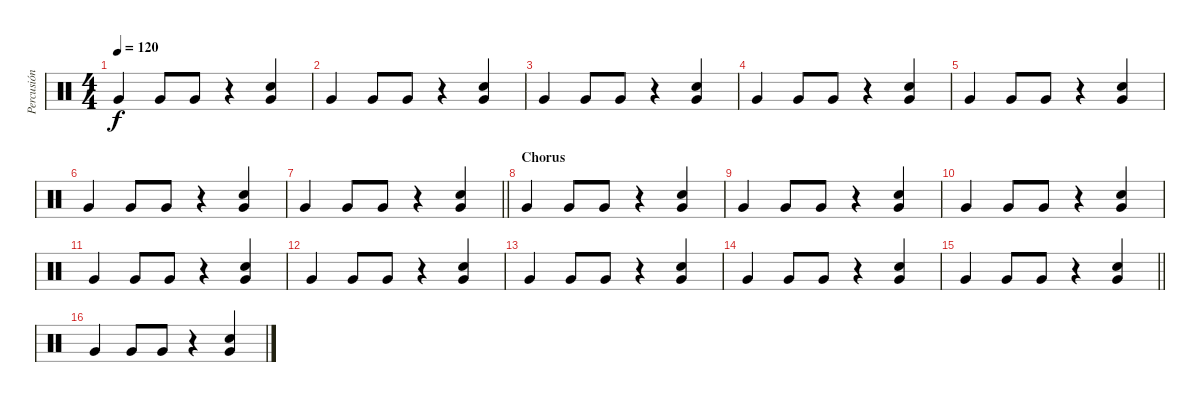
\track ("Percusión" "Percusión") {instrument percussion}
\staff {score}
\articulation defaults
\ts (4 4)
\tempo 120
\clef neutral
\ks c "Very Low Tom (hit)".4{dy f} "Very Low Tom (hit)".8 "Very Low Tom (hit)".8
r.4 ("Very Low Tom (hit)" "Electric Snare (hit)").4 |
"Very Low Tom (hit)".4 "Very Low Tom (hit)".8 "Very Low Tom (hit)".8 r.4 ("Very Low Tom (hit)" "Electric Snare (hit)").4 |
"Very Low Tom (hit)".4 "Very Low Tom (hit)".8 "Very Low Tom (hit)".8 r.4 ("Very Low Tom (hit)" "Electric Snare (hit)").4 |
"Very Low Tom (hit)".4 "Very Low Tom (hit)".8 "Very Low Tom (hit)".8 r.4 ("Very Low Tom (hit)" "Electric Snare (hit)").4 |
"Very Low Tom (hit)".4 "Very Low Tom (hit)".8 "Very Low Tom (hit)".8 r.4 ("Very Low Tom (hit)" "Electric Snare (hit)").4 |
"Very Low Tom (hit)".4 "Very Low Tom (hit)".8 "Very Low Tom (hit)".8 r.4 ("Very Low Tom (hit)" "Electric Snare (hit)").4 |
\barLineRight lightlight "Very Low Tom (hit)".4 "Very Low Tom (hit)".8 "Very Low Tom (hit)".8
r.4 ("Very Low Tom (hit)" "Electric Snare (hit)").4 |
\section ("" "Chorus")
"Very Low Tom (hit)".4 "Very Low Tom (hit)".8 "Very Low Tom (hit)".8 r.4 ("Very Low Tom (hit)" "Electric Snare (hit)").4 |
"Very Low Tom (hit)".4 "Very Low Tom (hit)".8 "Very Low Tom (hit)".8 r.4 ("Very Low Tom (hit)" "Electric Snare (hit)").4 |
"Very Low Tom (hit)".4 "Very Low Tom (hit)".8 "Very Low Tom (hit)".8 r.4 ("Very Low Tom (hit)" "Electric Snare (hit)").4 |
"Very Low Tom (hit)".4 "Very Low Tom (hit)".8 "Very Low Tom (hit)".8 r.4 ("Very Low Tom (hit)" "Electric Snare (hit)").4 |
"Very Low Tom (hit)".4 "Very Low Tom (hit)".8 "Very Low Tom (hit)".8 r.4 ("Very Low Tom (hit)" "Electric Snare (hit)").4 |
"Very Low Tom (hit)".4 "Very Low Tom (hit)".8 "Very Low Tom (hit)".8 r.4 ("Very Low Tom (hit)" "Electric Snare (hit)").4 |
"Very Low Tom (hit)".4 "Very Low Tom (hit)".8 "Very Low Tom (hit)".8 r.4 ("Very Low Tom (hit)" "Electric Snare (hit)").4 |
\barLineRight lightlight "Very Low Tom (hit)".4 "Very Low Tom (hit)".8 "Very Low Tom (hit)".8
r.4 ("Very Low Tom (hit)" "Electric Snare (hit)").4 |
"Very Low Tom (hit)".4 "Very Low Tom (hit)".8 "Very Low Tom (hit)".8 r.4 ("Very Low Tom (hit)" "Electric Snare (hit)").4
